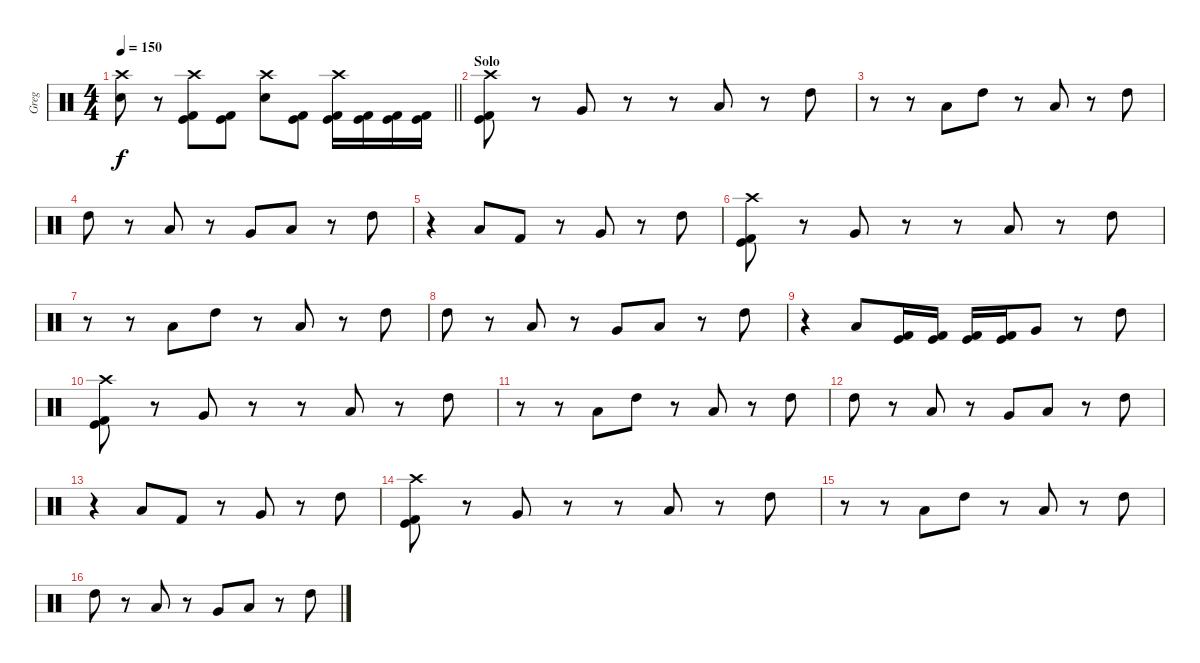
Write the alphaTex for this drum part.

\track ("Greg" "Greg") {instrument percussion}
\staff {score}
\articulation defaults
\ts (4 4)
\tempo 150
\clef neutral
\barLineRight lightlight
\ks c
("Crash high (hit)" "Snare (hit) 2").8{dy f} r.8 ("Crash high (hit)" "Kick (hit)" "Kick (hit) 2").8 ("Kick (hit)" "Kick (hit) 2").8 ("Crash high (hit)" "Snare (hit) 2").8 ("Kick (hit)" "Kick (hit) 2").8 ("Crash high (hit)" "Kick (hit)" "Kick (hit) 2").16 ("Kick (hit)" "Kick (hit) 2").16 ("Kick (hit)" "Kick (hit) 2").16 ("Kick (hit)" "Kick (hit) 2").16 |
\section ("" "Solo")
("Crash high (hit)" "Kick (hit)" "Kick (hit) 2").8 r.8 "Very Low Tom (hit)".8 r.8 r.8 "Low Tom (hit)".8 r.8 "High Tom (hit)".8 |
r.8 r.8 "Low Tom (hit)".8 "High Tom (hit)".8 r.8 "Low Tom (hit)".8 r.8 "High Tom (hit)".8 |
"High Tom (hit)".8 r.8 "Low Tom (hit)".8 r.8 "Very Low Tom (hit)".8 "Low Tom (hit)".8 r.8 "High Tom (hit)".8 |
r.4 "Low Tom (hit)".8 "Kick (hit) 2".8 r.8 "Very Low Tom (hit)".8 r.8 "High Tom (hit)".8 |
("Crash high (hit)" "Kick (hit)" "Kick (hit) 2").8 r.8 "Very Low Tom (hit)".8 r.8 r.8 "Low Tom (hit)".8 r.8 "High Tom (hit)".8 |
r.8 r.8 "Low Tom (hit)".8 "High Tom (hit)".8 r.8 "Low Tom (hit)".8 r.8 "High Tom (hit)".8 |
"High Tom (hit)".8 r.8 "Low Tom (hit)".8 r.8 "Very Low Tom (hit)".8 "Low Tom (hit)".8 r.8 "High Tom (hit)".8 |
r.4 "Low Tom (hit)".8 ("Kick (hit)" "Kick (hit) 2").16 ("Kick (hit)" "Kick (hit) 2").16 ("Kick (hit)" "Kick (hit) 2").16 ("Kick (hit)" "Kick (hit) 2").16 "Very Low Tom (hit)".8 r.8 "High Tom (hit)".8 |
("Crash high (hit)" "Kick (hit)" "Kick (hit) 2").8 r.8 "Very Low Tom (hit)".8 r.8 r.8 "Low Tom (hit)".8 r.8 "High Tom (hit)".8 |
r.8 r.8 "Low Tom (hit)".8 "High Tom (hit)".8 r.8 "Low Tom (hit)".8 r.8 "High Tom (hit)".8 |
"High Tom (hit)".8 r.8 "Low Tom (hit)".8 r.8 "Very Low Tom (hit)".8 "Low Tom (hit)".8 r.8 "High Tom (hit)".8 |
r.4 "Low Tom (hit)".8 "Kick (hit) 2".8 r.8 "Very Low Tom (hit)".8 r.8 "High Tom (hit)".8 |
("Crash high (hit)" "Kick (hit)" "Kick (hit) 2").8 r.8 "Very Low Tom (hit)".8 r.8 r.8 "Low Tom (hit)".8 r.8 "High Tom (hit)".8 |
r.8 r.8 "Low Tom (hit)".8 "High Tom (hit)".8 r.8 "Low Tom (hit)".8 r.8 "High Tom (hit)".8 |
"High Tom (hit)".8 r.8 "Low Tom (hit)".8 r.8 "Very Low Tom (hit)".8 "Low Tom (hit)".8 r.8 "High Tom (hit)".8
